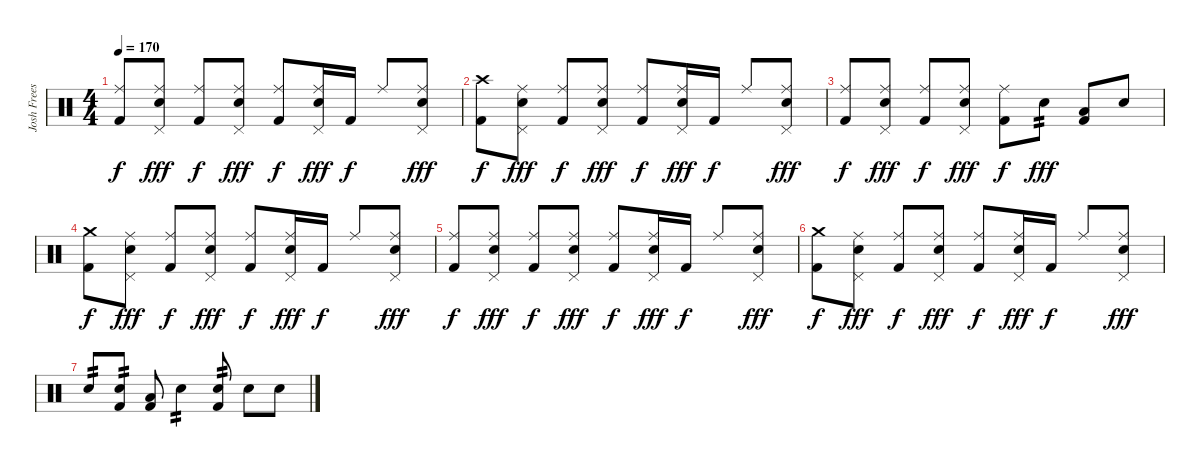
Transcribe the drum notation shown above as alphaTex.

\track ("Josh Freese" "Josh Frees") {solo instrument percussion}
\staff
\articulation defaults
\ts (4 4)
\tempo 170
\clef neutral
\ks c
("Ride (middle)" "Kick (hit) 2").8{dy f} ("Ride (middle)" "Electric Snare (hit)" "Pedal Hi-Hat (hit)").8{dy fff} ("Ride (middle)" "Kick (hit) 2").8{dy f} ("Ride (middle)" "Electric Snare (hit)" "Pedal Hi-Hat (hit)").8{dy fff} ("Ride (middle)" "Kick (hit) 2").8{dy f} ("Ride (middle)" "Electric Snare (hit)" "Pedal Hi-Hat (hit)").16{dy fff} "Kick (hit) 2".16{dy f} "Ride (middle)".8 ("Ride (middle)" "Electric Snare (hit)" "Pedal Hi-Hat (hit)").8{dy fff} |
("Crash high (hit)" "Kick (hit) 2").8{dy f} ("Ride (middle)" "Electric Snare (hit)" "Pedal Hi-Hat (hit)").8{dy fff} ("Ride (middle)" "Kick (hit) 2").8{dy f} ("Ride (middle)" "Electric Snare (hit)" "Pedal Hi-Hat (hit)").8{dy fff} ("Ride (middle)" "Kick (hit) 2").8{dy f} ("Ride (middle)" "Electric Snare (hit)" "Pedal Hi-Hat (hit)").16{dy fff} "Kick (hit) 2".16{dy f} "Ride (middle)".8 ("Ride (middle)" "Electric Snare (hit)" "Pedal Hi-Hat (hit)").8{dy fff} |
("Ride (middle)" "Kick (hit) 2").8{dy f} ("Ride (middle)" "Electric Snare (hit)" "Pedal Hi-Hat (hit)").8{dy fff} ("Ride (middle)" "Kick (hit) 2").8{dy f} ("Ride (middle)" "Electric Snare (hit)" "Pedal Hi-Hat (hit)").8{dy fff} ("Ride (middle)" "Kick (hit) 2").8{dy f} "Electric Snare (hit)".8{tp 2 dy fff} ("Low Tom (hit)" "Kick (hit) 2").8 "Electric Snare (hit)".8 |
("Crash medium (hit)" "Kick (hit) 2").8{dy f} ("Ride (middle)" "Electric Snare (hit)" "Pedal Hi-Hat (hit)").8{dy fff} ("Ride (middle)" "Kick (hit) 2").8{dy f} ("Ride (middle)" "Electric Snare (hit)" "Pedal Hi-Hat (hit)").8{dy fff} ("Ride (middle)" "Kick (hit) 2").8{dy f} ("Ride (middle)" "Electric Snare (hit)" "Pedal Hi-Hat (hit)").16{dy fff} "Kick (hit) 2".16{dy f} "Ride (middle)".8 ("Ride (middle)" "Electric Snare (hit)" "Pedal Hi-Hat (hit)").8{dy fff} |
("Ride (middle)" "Kick (hit) 2").8{dy f} ("Ride (middle)" "Electric Snare (hit)" "Pedal Hi-Hat (hit)").8{dy fff} ("Ride (middle)" "Kick (hit) 2").8{dy f} ("Ride (middle)" "Electric Snare (hit)" "Pedal Hi-Hat (hit)").8{dy fff} ("Ride (middle)" "Kick (hit) 2").8{dy f} ("Ride (middle)" "Electric Snare (hit)" "Pedal Hi-Hat (hit)").16{dy fff} "Kick (hit) 2".16{dy f} "Ride (middle)".8 ("Ride (middle)" "Electric Snare (hit)" "Pedal Hi-Hat (hit)").8{dy fff} |
("Crash medium (hit)" "Kick (hit) 2").8{dy f} ("Ride (middle)" "Electric Snare (hit)" "Pedal Hi-Hat (hit)").8{dy fff} ("Ride (middle)" "Kick (hit) 2").8{dy f} ("Ride (middle)" "Electric Snare (hit)" "Pedal Hi-Hat (hit)").8{dy fff} ("Ride (middle)" "Kick (hit) 2").8{dy f} ("Ride (middle)" "Electric Snare (hit)" "Pedal Hi-Hat (hit)").16{dy fff} "Kick (hit) 2".16{dy f} "Ride (middle)".8 ("Ride (middle)" "Electric Snare (hit)" "Pedal Hi-Hat (hit)").8{dy fff} |
"Electric Snare (hit)".8{tp 2} ("Electric Snare (hit)" "Kick (hit) 2").8{tp 2} ("Low Tom (hit)" "Kick (hit) 2").8 "Electric Snare (hit)".4{tp 2} ("Electric Snare (hit)" "Kick (hit) 2").8{tp 2} "Electric Snare (hit)".8 "Electric Snare (hit)".8
